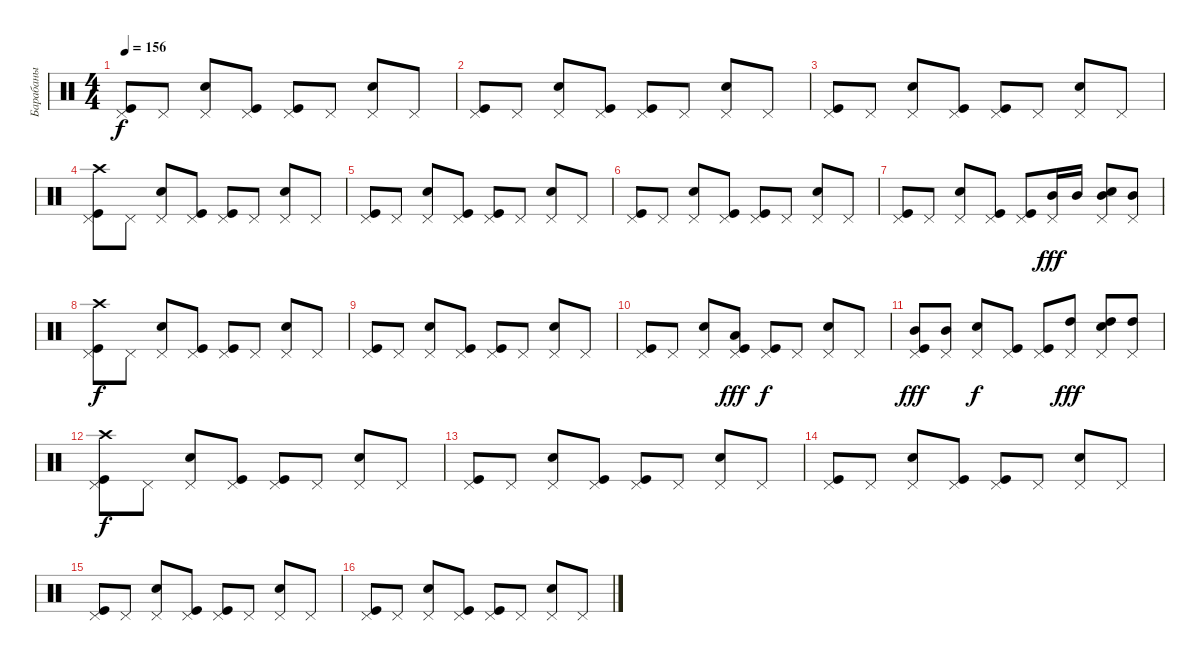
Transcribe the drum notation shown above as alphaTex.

\track ("Барабаны" "Барабаны") {instrument percussion}
\staff {score}
\articulation defaults
\ts (4 4)
\tempo 156
\clef neutral
\ks c
("Kick (hit)" "Pedal Hi-Hat (hit)").8{dy f} "Pedal Hi-Hat (hit)".8 ("Snare (hit) 2" "Pedal Hi-Hat (hit)").8 ("Kick (hit)" "Pedal Hi-Hat (hit)").8 ("Kick (hit)" "Pedal Hi-Hat (hit)").8 "Pedal Hi-Hat (hit)".8 ("Snare (hit) 2" "Pedal Hi-Hat (hit)").8 "Pedal Hi-Hat (hit)".8 |
("Kick (hit)" "Pedal Hi-Hat (hit)").8 "Pedal Hi-Hat (hit)".8 ("Snare (hit) 2" "Pedal Hi-Hat (hit)").8 ("Kick (hit)" "Pedal Hi-Hat (hit)").8 ("Kick (hit)" "Pedal Hi-Hat (hit)").8 "Pedal Hi-Hat (hit)".8 ("Snare (hit) 2" "Pedal Hi-Hat (hit)").8 "Pedal Hi-Hat (hit)".8 |
("Kick (hit)" "Pedal Hi-Hat (hit)").8 "Pedal Hi-Hat (hit)".8 ("Snare (hit) 2" "Pedal Hi-Hat (hit)").8 ("Kick (hit)" "Pedal Hi-Hat (hit)").8 ("Kick (hit)" "Pedal Hi-Hat (hit)").8 "Pedal Hi-Hat (hit)".8 ("Snare (hit) 2" "Pedal Hi-Hat (hit)").8 "Pedal Hi-Hat (hit)".8 |
("Kick (hit)" "Pedal Hi-Hat (hit)" "Crash high (hit)").8 "Pedal Hi-Hat (hit)".8 ("Snare (hit) 2" "Pedal Hi-Hat (hit)").8 ("Kick (hit)" "Pedal Hi-Hat (hit)").8 ("Kick (hit)" "Pedal Hi-Hat (hit)").8 "Pedal Hi-Hat (hit)".8 ("Snare (hit) 2" "Pedal Hi-Hat (hit)").8 "Pedal Hi-Hat (hit)".8 |
("Kick (hit)" "Pedal Hi-Hat (hit)").8 "Pedal Hi-Hat (hit)".8 ("Snare (hit) 2" "Pedal Hi-Hat (hit)").8 ("Kick (hit)" "Pedal Hi-Hat (hit)").8 ("Kick (hit)" "Pedal Hi-Hat (hit)").8 "Pedal Hi-Hat (hit)".8 ("Snare (hit) 2" "Pedal Hi-Hat (hit)").8 "Pedal Hi-Hat (hit)".8 |
("Kick (hit)" "Pedal Hi-Hat (hit)").8 "Pedal Hi-Hat (hit)".8 ("Snare (hit) 2" "Pedal Hi-Hat (hit)").8 ("Kick (hit)" "Pedal Hi-Hat (hit)").8 ("Kick (hit)" "Pedal Hi-Hat (hit)").8 "Pedal Hi-Hat (hit)".8 ("Snare (hit) 2" "Pedal Hi-Hat (hit)").8 "Pedal Hi-Hat (hit)".8 |
("Kick (hit)" "Pedal Hi-Hat (hit)").8 "Pedal Hi-Hat (hit)".8 ("Snare (hit) 2" "Pedal Hi-Hat (hit)").8 ("Kick (hit)" "Pedal Hi-Hat (hit)").8 ("Kick (hit)" "Pedal Hi-Hat (hit)").8 ("Pedal Hi-Hat (hit)" "Mid Tom (hit)").16{dy fff} "Mid Tom (hit)".16 ("Snare (hit) 2" "Pedal Hi-Hat (hit)" "Mid Tom (hit)").8 ("Pedal Hi-Hat (hit)" "Mid Tom (hit)").8 |
("Kick (hit)" "Pedal Hi-Hat (hit)" "Crash high (hit)").8{dy f} "Pedal Hi-Hat (hit)".8 ("Snare (hit) 2" "Pedal Hi-Hat (hit)").8 ("Kick (hit)" "Pedal Hi-Hat (hit)").8 ("Kick (hit)" "Pedal Hi-Hat (hit)").8 "Pedal Hi-Hat (hit)".8 ("Snare (hit) 2" "Pedal Hi-Hat (hit)").8 "Pedal Hi-Hat (hit)".8 |
("Kick (hit)" "Pedal Hi-Hat (hit)").8 "Pedal Hi-Hat (hit)".8 ("Snare (hit) 2" "Pedal Hi-Hat (hit)").8 ("Kick (hit)" "Pedal Hi-Hat (hit)").8 ("Kick (hit)" "Pedal Hi-Hat (hit)").8 "Pedal Hi-Hat (hit)".8 ("Snare (hit) 2" "Pedal Hi-Hat (hit)").8 "Pedal Hi-Hat (hit)".8 |
("Kick (hit)" "Pedal Hi-Hat (hit)").8 "Pedal Hi-Hat (hit)".8 ("Snare (hit) 2" "Pedal Hi-Hat (hit)").8 ("Kick (hit)" "Pedal Hi-Hat (hit)" "Low Tom (hit)").8{dy fff} ("Kick (hit)" "Pedal Hi-Hat (hit)").8{dy f} "Pedal Hi-Hat (hit)".8 ("Snare (hit) 2" "Pedal Hi-Hat (hit)").8 "Pedal Hi-Hat (hit)".8 |
("Kick (hit)" "Pedal Hi-Hat (hit)" "Mid Tom (hit)").8{dy fff} ("Pedal Hi-Hat (hit)" "Mid Tom (hit)").8 ("Snare (hit) 2" "Pedal Hi-Hat (hit)").8{dy f} ("Kick (hit)" "Pedal Hi-Hat (hit)").8 ("Kick (hit)" "Pedal Hi-Hat (hit)").8 ("Pedal Hi-Hat (hit)" "High Tom (hit)").8{dy fff} ("Snare (hit) 2" "Pedal Hi-Hat (hit)" "High Tom (hit)").8 ("Pedal Hi-Hat (hit)" "High Tom (hit)").8 |
("Kick (hit)" "Pedal Hi-Hat (hit)" "Crash high (hit)").8{dy f volume 10} "Pedal Hi-Hat (hit)".8 ("Snare (hit) 2" "Pedal Hi-Hat (hit)").8 ("Kick (hit)" "Pedal Hi-Hat (hit)").8 ("Kick (hit)" "Pedal Hi-Hat (hit)").8 "Pedal Hi-Hat (hit)".8 ("Snare (hit) 2" "Pedal Hi-Hat (hit)").8 "Pedal Hi-Hat (hit)".8 |
("Kick (hit)" "Pedal Hi-Hat (hit)").8 "Pedal Hi-Hat (hit)".8 ("Snare (hit) 2" "Pedal Hi-Hat (hit)").8 ("Kick (hit)" "Pedal Hi-Hat (hit)").8 ("Kick (hit)" "Pedal Hi-Hat (hit)").8 "Pedal Hi-Hat (hit)".8 ("Snare (hit) 2" "Pedal Hi-Hat (hit)").8 "Pedal Hi-Hat (hit)".8 |
("Kick (hit)" "Pedal Hi-Hat (hit)").8 "Pedal Hi-Hat (hit)".8 ("Snare (hit) 2" "Pedal Hi-Hat (hit)").8 ("Kick (hit)" "Pedal Hi-Hat (hit)").8 ("Kick (hit)" "Pedal Hi-Hat (hit)").8 "Pedal Hi-Hat (hit)".8 ("Snare (hit) 2" "Pedal Hi-Hat (hit)").8 "Pedal Hi-Hat (hit)".8 |
("Kick (hit)" "Pedal Hi-Hat (hit)").8 "Pedal Hi-Hat (hit)".8 ("Snare (hit) 2" "Pedal Hi-Hat (hit)").8 ("Kick (hit)" "Pedal Hi-Hat (hit)").8 ("Kick (hit)" "Pedal Hi-Hat (hit)").8 "Pedal Hi-Hat (hit)".8 ("Snare (hit) 2" "Pedal Hi-Hat (hit)").8 "Pedal Hi-Hat (hit)".8 |
("Kick (hit)" "Pedal Hi-Hat (hit)").8{volume 7} "Pedal Hi-Hat (hit)".8 ("Snare (hit) 2" "Pedal Hi-Hat (hit)").8 ("Kick (hit)" "Pedal Hi-Hat (hit)").8 ("Kick (hit)" "Pedal Hi-Hat (hit)").8 "Pedal Hi-Hat (hit)".8 ("Snare (hit) 2" "Pedal Hi-Hat (hit)").8 "Pedal Hi-Hat (hit)".8
